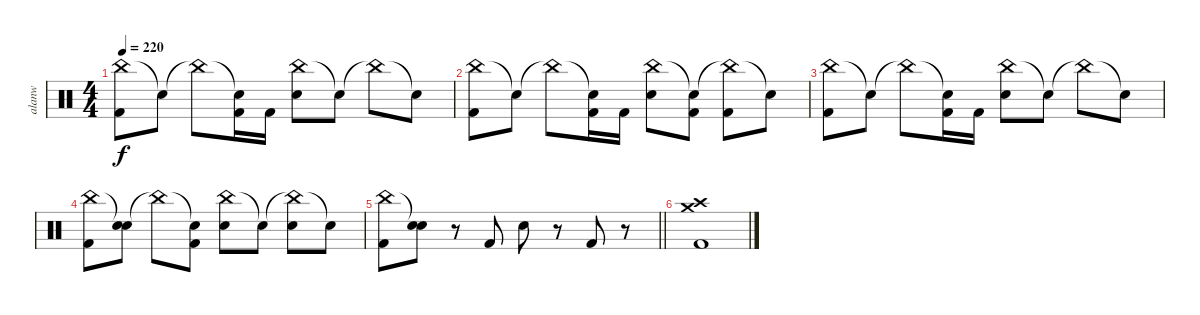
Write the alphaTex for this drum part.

\track ("alanw" "alanw") {instrument percussion}
\staff {score}
\articulation defaults
\ts (4 4)
\tempo 220
\clef neutral
\ks c
("China (hit)" "Kick (hit) 2").8{dy f} "Snare (hit)"{t}.8 "China (hit)"{t}.8 ("Snare (hit)"{t} "Kick (hit) 2").16 "Kick (hit) 2".16 ("China (hit)" "Electric Snare (hit)").8 "Snare (hit)"{t}.8 "China (hit)"{t}.8 "Snare (hit)"{t}.8 |
("China (hit)" "Kick (hit) 2").8 "Snare (hit)"{t}.8 "China (hit)"{t}.8 ("Snare (hit)"{t} "Kick (hit) 2").16 "Kick (hit) 2".16 ("China (hit)" "Electric Snare (hit)").8 ("Snare (hit)"{t} "Kick (hit) 2").8 ("China (hit)"{t} "Kick (hit) 2").8 "Snare (hit)"{t}.8 |
("China (hit)" "Kick (hit) 2").8 "Snare (hit)"{t}.8 "China (hit)"{t}.8 ("Snare (hit)"{t} "Kick (hit) 2").16 "Kick (hit) 2".16 ("China (hit)" "Electric Snare (hit)").8 "Snare (hit)"{t}.8 "China (hit)"{t}.8 "Snare (hit)"{t}.8 |
("China (hit)" "Kick (hit) 2").8 ("Snare (hit)"{t} "Electric Snare (hit)").8 "China (hit)"{t}.8 ("Snare (hit)"{t} "Kick (hit) 2").8 ("China (hit)" "Electric Snare (hit)").8 "Snare (hit)"{t}.8 ("China (hit)"{t} "Electric Snare (hit)").8 "Snare (hit)"{t}.8 |
\barLineRight lightlight
("China (hit)" "Kick (hit) 2").8 ("Snare (hit)"{t} "Electric Snare (hit)").8 r.8 "Kick (hit) 2".8 "Electric Snare (hit)".8 r.8 "Kick (hit) 2".8 r.8 |
("Crash high (hit)" "Crash medium (hit)" "Kick (hit) 2").1
